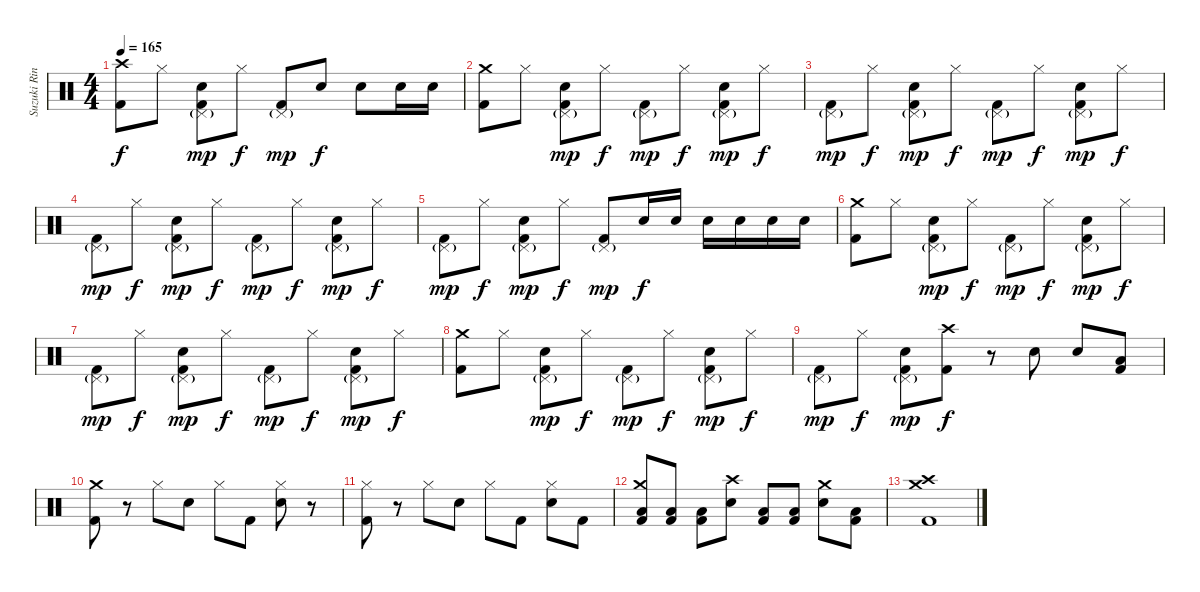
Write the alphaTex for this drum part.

\track ("Suzuki Rina" "Suzuki Rin") {instrument percussion}
\staff {score}
\articulation defaults
\ts (4 4)
\tempo 165
\clef neutral
\ks c
("Crash high (hit)" "Kick (hit) 2").8{dy f} "Hi-Hat (closed)".8 ("Pedal Hi-Hat (hit)"{g} "Electric Snare (hit)" "Kick (hit) 2").8{dy mp} "Hi-Hat (closed)".8{dy f} ("Pedal Hi-Hat (hit)"{g} "Kick (hit) 2").8{dy mp} "Electric Snare (hit)".8{dy f} "Electric Snare (hit)".8 "Electric Snare (hit)".16 "Electric Snare (hit)".16 |
("Crash medium (hit)" "Kick (hit) 2").8 "Hi-Hat (closed)".8 ("Pedal Hi-Hat (hit)"{g} "Electric Snare (hit)" "Kick (hit) 2").8{dy mp} "Hi-Hat (closed)".8{dy f} ("Pedal Hi-Hat (hit)"{g} "Kick (hit) 2").8{dy mp} "Hi-Hat (closed)".8{dy f} ("Pedal Hi-Hat (hit)"{g} "Electric Snare (hit)" "Kick (hit) 2").8{dy mp} "Hi-Hat (closed)".8{dy f} |
("Pedal Hi-Hat (hit)"{g} "Kick (hit) 2").8{dy mp} "Hi-Hat (closed)".8{dy f} ("Pedal Hi-Hat (hit)"{g} "Electric Snare (hit)" "Kick (hit) 2").8{dy mp} "Hi-Hat (closed)".8{dy f} ("Pedal Hi-Hat (hit)"{g} "Kick (hit) 2").8{dy mp} "Hi-Hat (closed)".8{dy f} ("Pedal Hi-Hat (hit)"{g} "Electric Snare (hit)" "Kick (hit) 2").8{dy mp} "Hi-Hat (closed)".8{dy f} |
("Pedal Hi-Hat (hit)"{g} "Kick (hit) 2").8{dy mp} "Hi-Hat (closed)".8{dy f} ("Pedal Hi-Hat (hit)"{g} "Electric Snare (hit)" "Kick (hit) 2").8{dy mp} "Hi-Hat (closed)".8{dy f} ("Pedal Hi-Hat (hit)"{g} "Kick (hit) 2").8{dy mp} "Hi-Hat (closed)".8{dy f} ("Pedal Hi-Hat (hit)"{g} "Electric Snare (hit)" "Kick (hit) 2").8{dy mp} "Hi-Hat (closed)".8{dy f} |
("Pedal Hi-Hat (hit)"{g} "Kick (hit) 2").8{dy mp} "Hi-Hat (closed)".8{dy f} ("Pedal Hi-Hat (hit)"{g} "Electric Snare (hit)" "Kick (hit) 2").8{dy mp} "Hi-Hat (closed)".8{dy f} ("Pedal Hi-Hat (hit)"{g} "Kick (hit) 2").8{dy mp} "Electric Snare (hit)".16{dy f} "Electric Snare (hit)".16 "Electric Snare (hit)".16 "Electric Snare (hit)".16 "Electric Snare (hit)".16 "Electric Snare (hit)".16 |
("Crash medium (hit)" "Kick (hit) 2").8 "Hi-Hat (closed)".8 ("Pedal Hi-Hat (hit)"{g} "Electric Snare (hit)" "Kick (hit) 2").8{dy mp} "Hi-Hat (closed)".8{dy f} ("Pedal Hi-Hat (hit)"{g} "Kick (hit) 2").8{dy mp} "Hi-Hat (closed)".8{dy f} ("Pedal Hi-Hat (hit)"{g} "Electric Snare (hit)" "Kick (hit) 2").8{dy mp} "Hi-Hat (closed)".8{dy f} |
("Pedal Hi-Hat (hit)"{g} "Kick (hit) 2").8{dy mp} "Hi-Hat (closed)".8{dy f} ("Pedal Hi-Hat (hit)"{g} "Electric Snare (hit)" "Kick (hit) 2").8{dy mp} "Hi-Hat (closed)".8{dy f} ("Pedal Hi-Hat (hit)"{g} "Kick (hit) 2").8{dy mp} "Hi-Hat (closed)".8{dy f} ("Pedal Hi-Hat (hit)"{g} "Electric Snare (hit)" "Kick (hit) 2").8{dy mp} "Hi-Hat (closed)".8{dy f} |
("Crash medium (hit)" "Kick (hit) 2").8 "Hi-Hat (closed)".8 ("Pedal Hi-Hat (hit)"{g} "Electric Snare (hit)" "Kick (hit) 2").8{dy mp} "Hi-Hat (closed)".8{dy f} ("Pedal Hi-Hat (hit)"{g} "Kick (hit) 2").8{dy mp} "Hi-Hat (closed)".8{dy f} ("Pedal Hi-Hat (hit)"{g} "Electric Snare (hit)" "Kick (hit) 2").8{dy mp} "Hi-Hat (closed)".8{dy f} |
("Pedal Hi-Hat (hit)"{g} "Kick (hit) 2").8{dy mp} "Hi-Hat (closed)".8{dy f} ("Pedal Hi-Hat (hit)"{g} "Electric Snare (hit)" "Kick (hit) 2").8{dy mp} ("Crash high (hit)" "Kick (hit) 2").8{dy f} r.8 "Electric Snare (hit)".8 "Electric Snare (hit)".8 ("Low Floor Tom (hit)" "Kick (hit) 2").8 |
("Crash medium (hit)" "Kick (hit) 2").8 r.8 "Hi-Hat (closed)".8 "Electric Snare (hit)".8 "Hi-Hat (closed)".8 "Kick (hit) 2".8 ("Hi-Hat (closed)" "Electric Snare (hit)").8 r.8 |
("Hi-Hat (closed)" "Kick (hit) 2").8 r.8 "Hi-Hat (closed)".8 "Electric Snare (hit)".8 "Hi-Hat (closed)".8 "Kick (hit) 2".8 ("Hi-Hat (closed)" "Electric Snare (hit)").8 "Kick (hit) 2".8 |
("Crash medium (hit)" "Low Floor Tom (hit)" "Kick (hit) 2").8 ("Low Floor Tom (hit)" "Kick (hit) 2").8 ("Low Floor Tom (hit)" "Kick (hit) 2").8 ("Crash high (hit)" "Electric Snare (hit)").8 ("Low Floor Tom (hit)" "Kick (hit) 2").8 ("Low Floor Tom (hit)" "Kick (hit) 2").8 ("Crash medium (hit)" "Electric Snare (hit)").8 ("Low Floor Tom (hit)" "Kick (hit) 2").8 |
("Crash medium (hit)" "Crash high (hit)" "Kick (hit) 2").1
